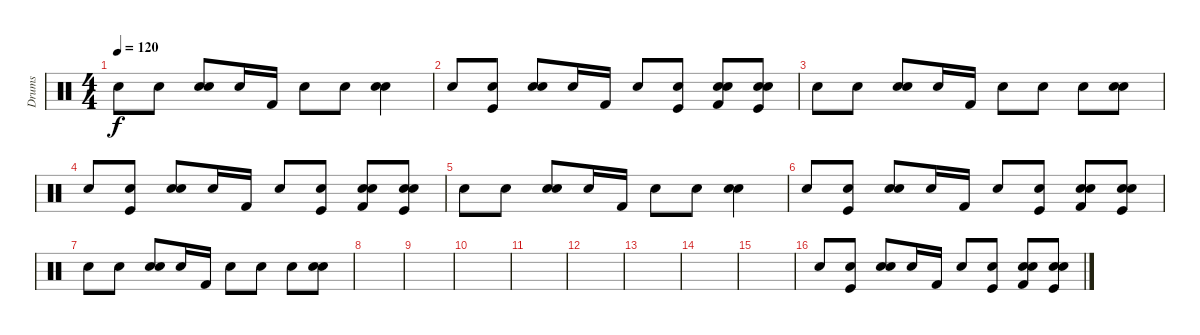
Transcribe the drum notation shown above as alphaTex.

\track ("Drums" "Drums") {instrument percussion}
\staff {score}
\articulation defaults
\ts (4 4)
\tempo 120
\clef neutral
\ks c "Snare (hit) 2".8{dy f} "Snare (hit) 2".8
("Electric Snare (hit)" "Snare (hit) 2").8 "Snare (hit) 2".16 "Kick (hit) 2".16 "Snare (hit) 2".8 "Snare (hit) 2".8 ("Electric Snare (hit)" "Snare (hit) 2").4 |
"Snare (hit) 2".8 ("Snare (hit) 2" "Kick (hit)").8 ("Electric Snare (hit)" "Snare (hit) 2").8 "Snare (hit) 2".16 "Kick (hit) 2".16 "Snare (hit) 2".8 ("Snare (hit) 2" "Kick (hit)").8 ("Electric Snare (hit)" "Snare (hit) 2" "Kick (hit) 2").8 ("Electric Snare (hit)" "Snare (hit) 2" "Kick (hit)").8 |
"Snare (hit) 2".8 "Snare (hit) 2".8 ("Electric Snare (hit)" "Snare (hit) 2").8 "Snare (hit) 2".16 "Kick (hit) 2".16 "Snare (hit) 2".8 "Snare (hit) 2".8 "Snare (hit) 2".8 ("Electric Snare (hit)" "Snare (hit) 2").8 |
"Snare (hit) 2".8 ("Snare (hit) 2" "Kick (hit)").8 ("Electric Snare (hit)" "Snare (hit) 2").8 "Snare (hit) 2".16 "Kick (hit) 2".16 "Snare (hit) 2".8 ("Snare (hit) 2" "Kick (hit)").8 ("Electric Snare (hit)" "Snare (hit) 2" "Kick (hit) 2").8 ("Electric Snare (hit)" "Snare (hit) 2" "Kick (hit)").8 |
"Snare (hit) 2".8 "Snare (hit) 2".8 ("Electric Snare (hit)" "Snare (hit) 2").8 "Snare (hit) 2".16 "Kick (hit) 2".16 "Snare (hit) 2".8 "Snare (hit) 2".8 ("Electric Snare (hit)" "Snare (hit) 2").4 |
"Snare (hit) 2".8 ("Snare (hit) 2" "Kick (hit)").8 ("Electric Snare (hit)" "Snare (hit) 2").8 "Snare (hit) 2".16 "Kick (hit) 2".16 "Snare (hit) 2".8 ("Snare (hit) 2" "Kick (hit)").8 ("Electric Snare (hit)" "Snare (hit) 2" "Kick (hit) 2").8 ("Electric Snare (hit)" "Snare (hit) 2" "Kick (hit)").8 |
"Snare (hit) 2".8 "Snare (hit) 2".8 ("Electric Snare (hit)" "Snare (hit) 2").8 "Snare (hit) 2".16 "Kick (hit) 2".16 "Snare (hit) 2".8 "Snare (hit) 2".8 "Snare (hit) 2".8 ("Electric Snare (hit)" "Snare (hit) 2").8 |
|
|
|
|
|
|
|
|
"Snare (hit) 2".8 ("Snare (hit) 2" "Kick (hit)").8 ("Electric Snare (hit)" "Snare (hit) 2").8 "Snare (hit) 2".16 "Kick (hit) 2".16 "Snare (hit) 2".8 ("Snare (hit) 2" "Kick (hit)").8 ("Electric Snare (hit)" "Snare (hit) 2" "Kick (hit) 2").8 ("Electric Snare (hit)" "Snare (hit) 2" "Kick (hit)").8
